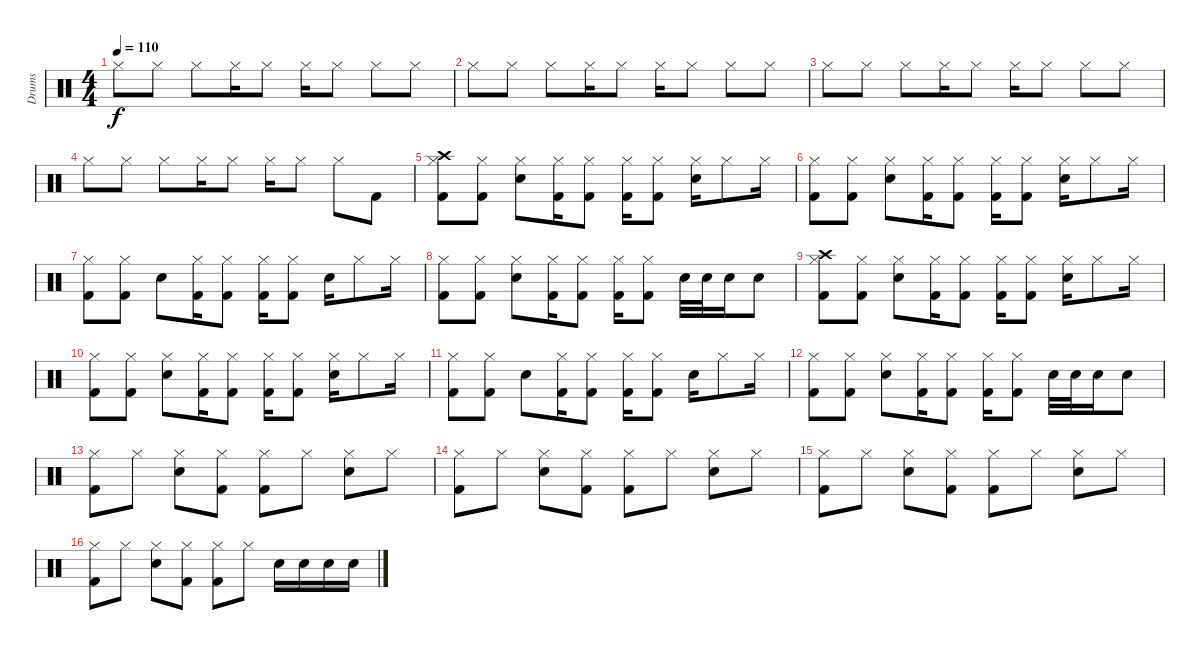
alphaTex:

\track ("Drums" "Drums") {instrument percussion}
\staff {score}
\articulation defaults
\ts (4 4)
\tempo 110
\clef neutral
\ks c "Hi-Hat (closed)".8{dy f} "Hi-Hat (closed)".8 "Hi-Hat (closed)".8 "Hi-Hat (closed)".16 "Hi-Hat (closed)".8 "Hi-Hat (closed)".16 "Hi-Hat (closed)".8 "Hi-Hat (closed)".8 "Hi-Hat (closed)".8
|
"Hi-Hat (closed)".8 "Hi-Hat (closed)".8 "Hi-Hat (closed)".8 "Hi-Hat (closed)".16 "Hi-Hat (closed)".8 "Hi-Hat (closed)".16 "Hi-Hat (closed)".8 "Hi-Hat (closed)".8 "Hi-Hat (closed)".8 |
"Hi-Hat (closed)".8 "Hi-Hat (closed)".8 "Hi-Hat (closed)".8 "Hi-Hat (closed)".16 "Hi-Hat (closed)".8 "Hi-Hat (closed)".16 "Hi-Hat (closed)".8 "Hi-Hat (closed)".8 "Hi-Hat (closed)".8 |
"Hi-Hat (closed)".8 "Hi-Hat (closed)".8 "Hi-Hat (closed)".8 "Hi-Hat (closed)".16 "Hi-Hat (closed)".8 "Hi-Hat (closed)".16 "Hi-Hat (closed)".8 "Hi-Hat (closed)".8 "Kick (hit) 2".8 |
("Crash high (hit)" "Hi-Hat (closed)" "Kick (hit) 2").8 ("Hi-Hat (closed)" "Kick (hit) 2").8 ("Hi-Hat (closed)" "Electric Snare (hit)").8 ("Hi-Hat (closed)" "Kick (hit) 2").16 ("Hi-Hat (closed)" "Kick (hit) 2").8 ("Hi-Hat (closed)" "Kick (hit) 2").16 ("Hi-Hat (closed)" "Kick (hit) 2").8 ("Hi-Hat (closed)" "Electric Snare (hit)").16 "Hi-Hat (closed)".8 "Hi-Hat (closed)".16 |
("Hi-Hat (closed)" "Kick (hit) 2").8 ("Hi-Hat (closed)" "Kick (hit) 2").8 ("Hi-Hat (closed)" "Electric Snare (hit)").8 ("Hi-Hat (closed)" "Kick (hit) 2").16 ("Hi-Hat (closed)" "Kick (hit) 2").8 ("Hi-Hat (closed)" "Kick (hit) 2").16 ("Hi-Hat (closed)" "Kick (hit) 2").8 ("Hi-Hat (closed)" "Electric Snare (hit)").16 "Hi-Hat (closed)".8 "Hi-Hat (closed)".16 |
("Hi-Hat (closed)" "Kick (hit) 2").8 ("Hi-Hat (closed)" "Kick (hit) 2").8 "Electric Snare (hit)".8 ("Hi-Hat (closed)" "Kick (hit) 2").16 ("Hi-Hat (closed)" "Kick (hit) 2").8 ("Hi-Hat (closed)" "Kick (hit) 2").16 ("Hi-Hat (closed)" "Kick (hit) 2").8 "Electric Snare (hit)".16 "Hi-Hat (closed)".8 "Hi-Hat (closed)".16 |
("Hi-Hat (closed)" "Kick (hit) 2").8 ("Hi-Hat (closed)" "Kick (hit) 2").8 ("Hi-Hat (closed)" "Electric Snare (hit)").8 ("Hi-Hat (closed)" "Kick (hit) 2").16 ("Hi-Hat (closed)" "Kick (hit) 2").8 ("Hi-Hat (closed)" "Kick (hit) 2").16 ("Hi-Hat (closed)" "Kick (hit) 2").8 "Electric Snare (hit)".32 "Electric Snare (hit)".32 "Electric Snare (hit)".16 "Electric Snare (hit)".8 |
("Crash high (hit)" "Hi-Hat (closed)" "Kick (hit) 2").8 ("Hi-Hat (closed)" "Kick (hit) 2").8 ("Hi-Hat (closed)" "Electric Snare (hit)").8 ("Hi-Hat (closed)" "Kick (hit) 2").16 ("Hi-Hat (closed)" "Kick (hit) 2").8 ("Hi-Hat (closed)" "Kick (hit) 2").16 ("Hi-Hat (closed)" "Kick (hit) 2").8 ("Hi-Hat (closed)" "Electric Snare (hit)").16 "Hi-Hat (closed)".8 "Hi-Hat (closed)".16 |
("Hi-Hat (closed)" "Kick (hit) 2").8 ("Hi-Hat (closed)" "Kick (hit) 2").8 ("Hi-Hat (closed)" "Electric Snare (hit)").8 ("Hi-Hat (closed)" "Kick (hit) 2").16 ("Hi-Hat (closed)" "Kick (hit) 2").8 ("Hi-Hat (closed)" "Kick (hit) 2").16 ("Hi-Hat (closed)" "Kick (hit) 2").8 ("Hi-Hat (closed)" "Electric Snare (hit)").16 "Hi-Hat (closed)".8 "Hi-Hat (closed)".16 |
("Hi-Hat (closed)" "Kick (hit) 2").8 ("Hi-Hat (closed)" "Kick (hit) 2").8 "Electric Snare (hit)".8 ("Hi-Hat (closed)" "Kick (hit) 2").16 ("Hi-Hat (closed)" "Kick (hit) 2").8 ("Hi-Hat (closed)" "Kick (hit) 2").16 ("Hi-Hat (closed)" "Kick (hit) 2").8 "Electric Snare (hit)".16 "Hi-Hat (closed)".8 "Hi-Hat (closed)".16 |
("Hi-Hat (closed)" "Kick (hit) 2").8 ("Hi-Hat (closed)" "Kick (hit) 2").8 ("Hi-Hat (closed)" "Electric Snare (hit)").8 ("Hi-Hat (closed)" "Kick (hit) 2").16 ("Hi-Hat (closed)" "Kick (hit) 2").8 ("Hi-Hat (closed)" "Kick (hit) 2").16 ("Hi-Hat (closed)" "Kick (hit) 2").8 "Electric Snare (hit)".32 "Electric Snare (hit)".32 "Electric Snare (hit)".16 "Electric Snare (hit)".8 |
("Hi-Hat (closed)" "Kick (hit) 2").8 "Hi-Hat (closed)".8 ("Hi-Hat (closed)" "Electric Snare (hit)").8 ("Hi-Hat (closed)" "Kick (hit) 2").8 ("Hi-Hat (closed)" "Kick (hit) 2").8 "Hi-Hat (closed)".8 ("Hi-Hat (closed)" "Electric Snare (hit)").8 "Hi-Hat (closed)".8 |
("Hi-Hat (closed)" "Kick (hit) 2").8 "Hi-Hat (closed)".8 ("Hi-Hat (closed)" "Electric Snare (hit)").8 ("Hi-Hat (closed)" "Kick (hit) 2").8 ("Hi-Hat (closed)" "Kick (hit) 2").8 "Hi-Hat (closed)".8 ("Hi-Hat (closed)" "Electric Snare (hit)").8 "Hi-Hat (closed)".8 |
("Hi-Hat (closed)" "Kick (hit) 2").8 "Hi-Hat (closed)".8 ("Hi-Hat (closed)" "Electric Snare (hit)").8 ("Hi-Hat (closed)" "Kick (hit) 2").8 ("Hi-Hat (closed)" "Kick (hit) 2").8 "Hi-Hat (closed)".8 ("Hi-Hat (closed)" "Electric Snare (hit)").8 "Hi-Hat (closed)".8 |
("Hi-Hat (closed)" "Kick (hit) 2").8 "Hi-Hat (closed)".8 ("Hi-Hat (closed)" "Electric Snare (hit)").8 ("Hi-Hat (closed)" "Kick (hit) 2").8 ("Hi-Hat (closed)" "Kick (hit) 2").8 "Hi-Hat (closed)".8 "Electric Snare (hit)".16 "Electric Snare (hit)".16 "Electric Snare (hit)".16 "Electric Snare (hit)".16
